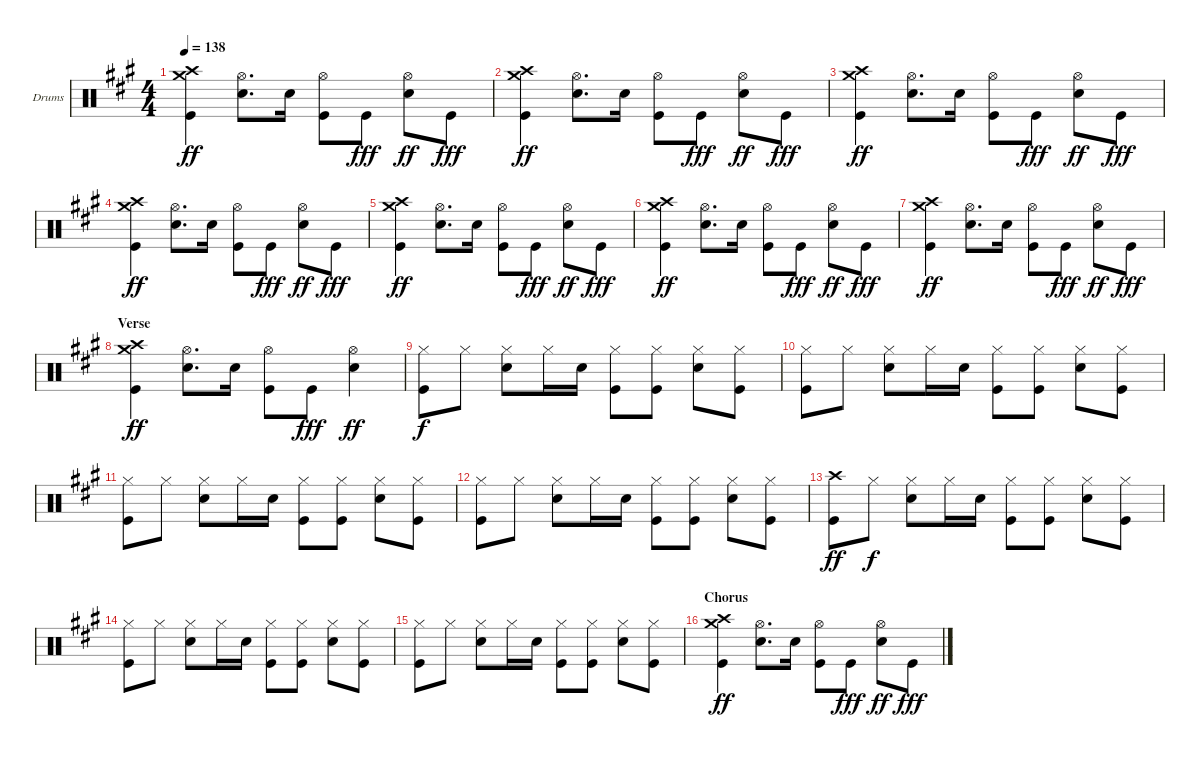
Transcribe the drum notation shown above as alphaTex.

\defaultSystemsLayout 4
\bracketExtendMode groupsimilarinstruments
\firstSystemTrackNameOrientation horizontal
\otherSystemsTrackNameOrientation horizontal
\track ("Drumkit" "Drums") {instrument percussion}
\staff {score}
\articulation defaults
\ts (4 4)
\tempo 138
\clef neutral
\scale
1.05801
\ks a
("Crash high (hit)" "Crash medium (hit)" "Kick (hit)").4{dy ff} ("Hi-Hat (open)" "Snare (hit) 2").8{d} "Snare (hit) 2".16 ("Hi-Hat (open)" "Kick (hit)").8 "Kick (hit)".8{dy fff} ("Hi-Hat (open)" "Snare (hit) 2").8{dy ff} "Kick (hit)".8{dy fff} |
\scale
0.941992 ("Crash high (hit)" "Crash medium (hit)" "Kick (hit)").4{dy ff} ("Hi-Hat (open)" "Snare (hit) 2").8{d} "Snare (hit) 2".16 ("Hi-Hat (open)" "Kick (hit)").8 "Kick (hit)".8{dy fff} ("Hi-Hat (open)" "Snare (hit) 2").8{dy ff} "Kick (hit)".8{dy fff} |
\scale
1.05801 ("Crash high (hit)" "Crash medium (hit)" "Kick (hit)").4{dy ff} ("Hi-Hat (open)" "Snare (hit) 2").8{d} "Snare (hit) 2".16 ("Hi-Hat (open)" "Kick (hit)").8 "Kick (hit)".8{dy fff} ("Hi-Hat (open)" "Snare (hit) 2").8{dy ff} "Kick (hit)".8{dy fff} |
\scale
0.941992 ("Crash high (hit)" "Crash medium (hit)" "Kick (hit)").4{dy ff} ("Hi-Hat (open)" "Snare (hit) 2").8{d} "Snare (hit) 2".16 ("Hi-Hat (open)" "Kick (hit)").8 "Kick (hit)".8{dy fff} ("Hi-Hat (open)" "Snare (hit) 2").8{dy ff} "Kick (hit)".8{dy fff} |
\scale
1.05801 ("Crash high (hit)" "Crash medium (hit)" "Kick (hit)").4{dy ff} ("Hi-Hat (open)" "Snare (hit) 2").8{d} "Snare (hit) 2".16 ("Hi-Hat (open)" "Kick (hit)").8 "Kick (hit)".8{dy fff} ("Hi-Hat (open)" "Snare (hit) 2").8{dy ff} "Kick (hit)".8{dy fff} |
\scale
0.941992 ("Crash high (hit)" "Crash medium (hit)" "Kick (hit)").4{dy ff} ("Hi-Hat (open)" "Snare (hit) 2").8{d} "Snare (hit) 2".16 ("Hi-Hat (open)" "Kick (hit)").8 "Kick (hit)".8{dy fff} ("Hi-Hat (open)" "Snare (hit) 2").8{dy ff} "Kick (hit)".8{dy fff} |
\scale
1.05801 ("Crash high (hit)" "Crash medium (hit)" "Kick (hit)").4{dy ff} ("Hi-Hat (open)" "Snare (hit) 2").8{d} "Snare (hit) 2".16 ("Hi-Hat (open)" "Kick (hit)").8 "Kick (hit)".8{dy fff} ("Hi-Hat (open)" "Snare (hit) 2").8{dy ff} "Kick (hit)".8{dy fff} |
\section ("" "Verse")
\scale
0.941992 ("Crash high (hit)" "Crash medium (hit)" "Kick (hit)").4{dy ff} ("Hi-Hat (open)" "Snare (hit) 2").8{d} "Snare (hit) 2".16 ("Hi-Hat (open)" "Kick (hit)").8 "Kick (hit)".8{dy fff} ("Hi-Hat (open)" "Snare (hit) 2").4{dy ff} |
\scale
1.05801 ("Hi-Hat (closed)" "Kick (hit)").8{dy f} "Hi-Hat (closed)".8 ("Hi-Hat (closed)" "Snare (hit) 2").8 "Hi-Hat (closed)".16 "Snare (hit) 2".16 ("Hi-Hat (closed)" "Kick (hit)").8 ("Hi-Hat (closed)" "Kick (hit)").8 ("Hi-Hat (closed)" "Snare (hit) 2").8 ("Hi-Hat (closed)" "Kick (hit)").8 |
\scale
0.941992 ("Hi-Hat (closed)" "Kick (hit)").8 "Hi-Hat (closed)".8 ("Hi-Hat (closed)" "Snare (hit) 2").8 "Hi-Hat (closed)".16 "Snare (hit) 2".16 ("Hi-Hat (closed)" "Kick (hit)").8 ("Hi-Hat (closed)" "Kick (hit)").8 ("Hi-Hat (closed)" "Snare (hit) 2").8 ("Hi-Hat (closed)" "Kick (hit)").8 |
\scale
1.05801 ("Hi-Hat (closed)" "Kick (hit)").8 "Hi-Hat (closed)".8 ("Hi-Hat (closed)" "Snare (hit) 2").8 "Hi-Hat (closed)".16 "Snare (hit) 2".16 ("Hi-Hat (closed)" "Kick (hit)").8 ("Hi-Hat (closed)" "Kick (hit)").8 ("Hi-Hat (closed)" "Snare (hit) 2").8 ("Hi-Hat (closed)" "Kick (hit)").8 |
\scale
0.941992 ("Hi-Hat (closed)" "Kick (hit)").8 "Hi-Hat (closed)".8 ("Hi-Hat (closed)" "Snare (hit) 2").8 "Hi-Hat (closed)".16 "Snare (hit) 2".16 ("Hi-Hat (closed)" "Kick (hit)").8 ("Hi-Hat (closed)" "Kick (hit)").8 ("Hi-Hat (closed)" "Snare (hit) 2").8 ("Hi-Hat (closed)" "Kick (hit)").8 |
\scale
1.05801 ("Crash high (hit)" "Kick (hit)").8{dy ff} "Hi-Hat (closed)".8{dy f} ("Hi-Hat (closed)" "Snare (hit) 2").8 "Hi-Hat (closed)".16 "Snare (hit) 2".16 ("Hi-Hat (closed)" "Kick (hit)").8 ("Hi-Hat (closed)" "Kick (hit)").8 ("Hi-Hat (closed)" "Snare (hit) 2").8 ("Hi-Hat (closed)" "Kick (hit)").8 |
\scale
0.941992 ("Hi-Hat (closed)" "Kick (hit)").8 "Hi-Hat (closed)".8 ("Hi-Hat (closed)" "Snare (hit) 2").8 "Hi-Hat (closed)".16 "Snare (hit) 2".16 ("Hi-Hat (closed)" "Kick (hit)").8 ("Hi-Hat (closed)" "Kick (hit)").8 ("Hi-Hat (closed)" "Snare (hit) 2").8 ("Hi-Hat (closed)" "Kick (hit)").8 |
\scale
0.941992 ("Hi-Hat (closed)" "Kick (hit)").8 "Hi-Hat (closed)".8 ("Hi-Hat (closed)" "Snare (hit) 2").8 "Hi-Hat (closed)".16 "Snare (hit) 2".16 ("Hi-Hat (closed)" "Kick (hit)").8 ("Hi-Hat (closed)" "Kick (hit)").8 ("Hi-Hat (closed)" "Snare (hit) 2").8 ("Hi-Hat (closed)" "Kick (hit)").8 |
\section ("" "Chorus")
\scale
1.05801 ("Crash high (hit)" "Crash medium (hit)" "Kick (hit)").4{dy ff} ("Hi-Hat (open)" "Snare (hit) 2").8{d} "Snare (hit) 2".16 ("Hi-Hat (open)" "Kick (hit)").8 "Kick (hit)".8{dy fff} ("Hi-Hat (open)" "Snare (hit) 2").8{dy ff} "Kick (hit)".8{dy fff}
